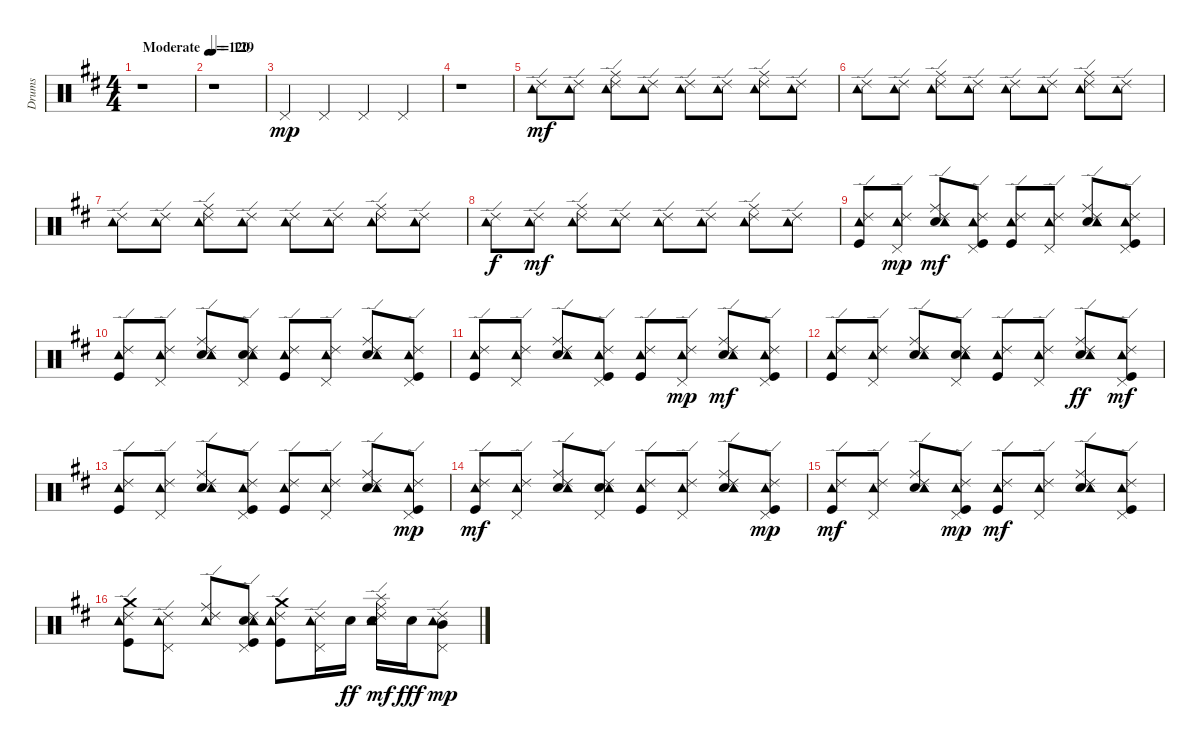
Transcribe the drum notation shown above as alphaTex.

\track ("Drums" "Drums") {instrument percussion}
\staff {score}
\articulation defaults
\ts (4 4)
\tempo (120 "Moderate")
\clef neutral
\ks d
r.1{dy mp} |
\tempo 129
r.1 |
"Pedal Hi-Hat (hit)".4 "Pedal Hi-Hat (hit)".4 "Pedal Hi-Hat (hit)".4 "Pedal Hi-Hat (hit)".4 |
r.1 |
("Tambourine (hit)" "Ride (edge) 2").8{dy mf} ("Tambourine (hit)" "Ride (edge) 2").8 ("Ride (middle)" "Tambourine (hit)" "Ride (edge) 2").8 ("Tambourine (hit)" "Ride (edge) 2").8 ("Tambourine (hit)" "Ride (edge) 2").8 ("Tambourine (hit)" "Ride (edge) 2").8 ("Ride (middle)" "Tambourine (hit)" "Ride (edge) 2").8 ("Tambourine (hit)" "Ride (edge) 2").8 |
("Tambourine (hit)" "Ride (edge) 2").8 ("Tambourine (hit)" "Ride (edge) 2").8 ("Ride (middle)" "Tambourine (hit)" "Ride (edge) 2").8 ("Tambourine (hit)" "Ride (edge) 2").8 ("Tambourine (hit)" "Ride (edge) 2").8 ("Tambourine (hit)" "Ride (edge) 2").8 ("Ride (middle)" "Tambourine (hit)" "Ride (edge) 2").8 ("Tambourine (hit)" "Ride (edge) 2").8 |
("Tambourine (hit)" "Ride (edge) 2").8 ("Tambourine (hit)" "Ride (edge) 2").8 ("Ride (middle)" "Tambourine (hit)" "Ride (edge) 2").8 ("Tambourine (hit)" "Ride (edge) 2").8 ("Tambourine (hit)" "Ride (edge) 2").8 ("Tambourine (hit)" "Ride (edge) 2").8 ("Ride (middle)" "Tambourine (hit)" "Ride (edge) 2").8 ("Tambourine (hit)" "Ride (edge) 2").8 |
("Tambourine (hit)" "Ride (edge) 2").8{dy f} ("Tambourine (hit)" "Ride (edge) 2").8{dy mf} ("Ride (middle)" "Tambourine (hit)" "Ride (edge) 2").8 ("Tambourine (hit)" "Ride (edge) 2").8 ("Tambourine (hit)" "Ride (edge) 2").8 ("Tambourine (hit)" "Ride (edge) 2").8 ("Ride (middle)" "Tambourine (hit)" "Ride (edge) 2").8 ("Tambourine (hit)" "Ride (edge) 2").8 |
("Kick (hit)" "Tambourine (hit)" "Ride (edge) 2").8 ("Pedal Hi-Hat (hit)" "Tambourine (hit)" "Ride (edge) 2").8{dy mp} ("Snare (hit) 2" "Ride (middle)" "Tambourine (hit)" "Ride (edge) 2").8{dy mf} ("Kick (hit)" "Pedal Hi-Hat (hit)" "Tambourine (hit)" "Ride (edge) 2").8 ("Kick (hit)" "Tambourine (hit)" "Ride (edge) 2").8 ("Pedal Hi-Hat (hit)" "Tambourine (hit)" "Ride (edge) 2").8 ("Snare (hit) 2" "Ride (middle)" "Tambourine (hit)" "Ride (edge) 2").8 ("Kick (hit)" "Pedal Hi-Hat (hit)" "Tambourine (hit)" "Ride (edge) 2").8 |
("Kick (hit)" "Tambourine (hit)" "Ride (edge) 2").8 ("Pedal Hi-Hat (hit)" "Tambourine (hit)" "Ride (edge) 2").8 ("Snare (hit) 2" "Ride (middle)" "Tambourine (hit)" "Ride (edge) 2").8 ("Snare (hit) 2" "Pedal Hi-Hat (hit)" "Tambourine (hit)" "Ride (edge) 2").8 ("Kick (hit)" "Tambourine (hit)" "Ride (edge) 2").8 ("Pedal Hi-Hat (hit)" "Tambourine (hit)" "Ride (edge) 2").8 ("Snare (hit) 2" "Ride (middle)" "Tambourine (hit)" "Ride (edge) 2").8 ("Kick (hit)" "Pedal Hi-Hat (hit)" "Tambourine (hit)" "Ride (edge) 2").8 |
("Kick (hit)" "Tambourine (hit)" "Ride (edge) 2").8 ("Pedal Hi-Hat (hit)" "Tambourine (hit)" "Ride (edge) 2").8 ("Snare (hit) 2" "Ride (middle)" "Tambourine (hit)" "Ride (edge) 2").8 ("Kick (hit)" "Pedal Hi-Hat (hit)" "Tambourine (hit)" "Ride (edge) 2").8 ("Kick (hit)" "Tambourine (hit)" "Ride (edge) 2").8 ("Pedal Hi-Hat (hit)" "Tambourine (hit)" "Ride (edge) 2").8{dy mp} ("Snare (hit) 2" "Ride (middle)" "Tambourine (hit)" "Ride (edge) 2").8{dy mf} ("Kick (hit)" "Pedal Hi-Hat (hit)" "Tambourine (hit)" "Ride (edge) 2").8 |
("Kick (hit)" "Tambourine (hit)" "Ride (edge) 2").8 ("Pedal Hi-Hat (hit)" "Tambourine (hit)" "Ride (edge) 2").8 ("Snare (hit) 2" "Ride (middle)" "Tambourine (hit)" "Ride (edge) 2").8 ("Snare (hit) 2" "Pedal Hi-Hat (hit)" "Tambourine (hit)" "Ride (edge) 2").8 ("Kick (hit)" "Tambourine (hit)" "Ride (edge) 2").8 ("Pedal Hi-Hat (hit)" "Tambourine (hit)" "Ride (edge) 2").8 ("Snare (hit) 2" "Ride (middle)" "Tambourine (hit)" "Ride (edge) 2").8{dy ff} ("Kick (hit)" "Pedal Hi-Hat (hit)" "Tambourine (hit)" "Ride (edge) 2").8{dy mf} |
("Kick (hit)" "Tambourine (hit)" "Ride (edge) 2").8 ("Pedal Hi-Hat (hit)" "Tambourine (hit)" "Ride (edge) 2").8 ("Snare (hit) 2" "Ride (middle)" "Tambourine (hit)" "Ride (edge) 2").8 ("Kick (hit)" "Pedal Hi-Hat (hit)" "Tambourine (hit)" "Ride (edge) 2").8 ("Kick (hit)" "Tambourine (hit)" "Ride (edge) 2").8 ("Pedal Hi-Hat (hit)" "Tambourine (hit)" "Ride (edge) 2").8 ("Snare (hit) 2" "Ride (middle)" "Tambourine (hit)" "Ride (edge) 2").8 ("Kick (hit)" "Pedal Hi-Hat (hit)" "Tambourine (hit)" "Ride (edge) 2").8{dy mp} |
("Kick (hit)" "Tambourine (hit)" "Ride (edge) 2").8{dy mf} ("Pedal Hi-Hat (hit)" "Tambourine (hit)" "Ride (edge) 2").8 ("Snare (hit) 2" "Ride (middle)" "Tambourine (hit)" "Ride (edge) 2").8 ("Snare (hit) 2" "Pedal Hi-Hat (hit)" "Tambourine (hit)" "Ride (edge) 2").8 ("Kick (hit)" "Tambourine (hit)" "Ride (edge) 2").8 ("Pedal Hi-Hat (hit)" "Tambourine (hit)" "Ride (edge) 2").8 ("Snare (hit) 2" "Ride (middle)" "Tambourine (hit)" "Ride (edge) 2").8 ("Kick (hit)" "Pedal Hi-Hat (hit)" "Tambourine (hit)" "Ride (edge) 2").8{dy mp} |
("Kick (hit)" "Tambourine (hit)" "Ride (edge) 2").8{dy mf} ("Pedal Hi-Hat (hit)" "Tambourine (hit)" "Ride (edge) 2").8 ("Snare (hit) 2" "Ride (middle)" "Tambourine (hit)" "Ride (edge) 2").8 ("Kick (hit)" "Pedal Hi-Hat (hit)" "Tambourine (hit)" "Ride (edge) 2").8{dy mp} ("Kick (hit)" "Tambourine (hit)" "Ride (edge) 2").8{dy mf} ("Pedal Hi-Hat (hit)" "Tambourine (hit)" "Ride (edge) 2").8 ("Snare (hit) 2" "Ride (middle)" "Tambourine (hit)" "Ride (edge) 2").8 ("Kick (hit)" "Pedal Hi-Hat (hit)" "Tambourine (hit)" "Ride (edge) 2").8 |
("Kick (hit)" "Tambourine (hit)" "Crash medium (hit)" "Ride (edge) 2").8 ("Pedal Hi-Hat (hit)" "Tambourine (hit)" "Ride (edge) 2").8 ("Ride (middle)" "Tambourine (hit)" "Ride (edge) 2").8 ("Kick (hit)" "Snare (hit) 2" "Pedal Hi-Hat (hit)" "Tambourine (hit)" "Ride (edge) 2").8 ("Kick (hit)" "Tambourine (hit)" "Crash medium (hit)" "Ride (edge) 2").8 ("Pedal Hi-Hat (hit)" "Tambourine (hit)" "Ride (edge) 2").16 "Snare (hit) 2".16{dy ff} ("Snare (hit) 2" "Ride (middle)" "Tambourine (hit)" "Splash (hit)" "Ride (edge) 2").16{dy mf} "Snare (hit) 2".16{dy fff} ("Pedal Hi-Hat (hit)" "Mid Tom (hit)" "Tambourine (hit)" "Ride (edge) 2").8{dy mp}
